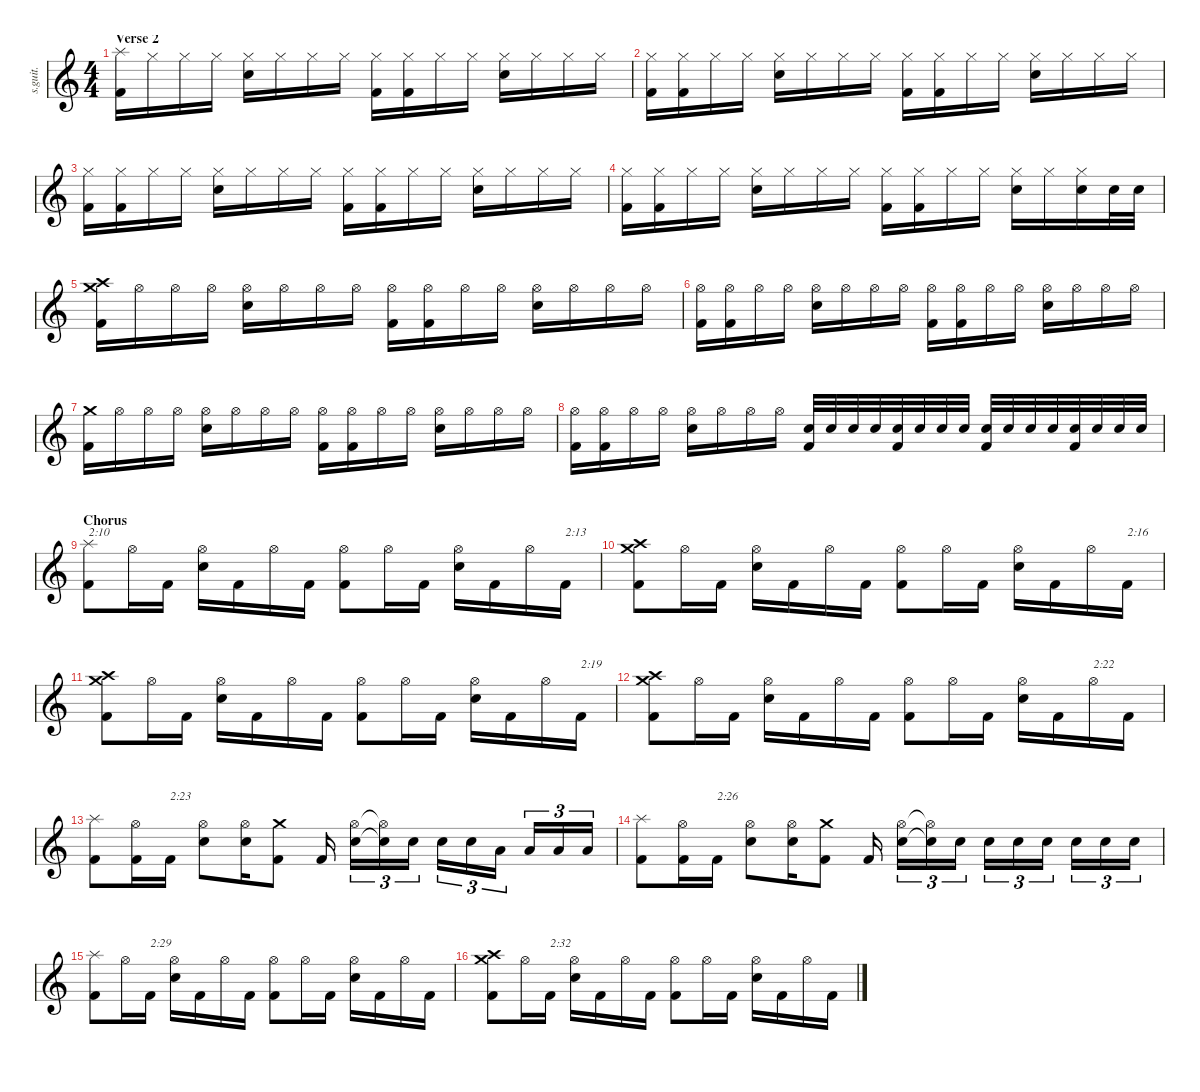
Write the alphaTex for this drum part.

\defaultSystemsLayout 4
\hideDynamics
\bracketExtendMode nobrackets
\track ("Dave Grohl | Drums" "s.guit.") {instrument percussion}
\staff {score}
\articulation defaults
\ts (4 4)
\section ("" "Verse 2")
\tempo (79 hide)
\clef g2
\ks c
("Kick (hit) 2" "Splash (hit)").16{lyrics (0 "") lyrics (1 "") lyrics (2 "") lyrics (3 "") lyrics (4 "") dy f} "Hi-Hat (closed)".16{lyrics (0 "") lyrics (1 "") lyrics (2 "") lyrics (3 "") lyrics (4 "")} "Hi-Hat (closed)".16{lyrics (0 "") lyrics (1 "") lyrics (2 "") lyrics (3 "") lyrics (4 "")} "Hi-Hat (closed)".16{lyrics (0 "") lyrics (1 "") lyrics (2 "") lyrics (3 "") lyrics (4 "")} ("Snare (hit) 2" "Hi-Hat (closed)").16{lyrics (0 "") lyrics (1 "") lyrics (2 "") lyrics (3 "") lyrics (4 "")} "Hi-Hat (closed)".16{lyrics (0 "") lyrics (1 "") lyrics (2 "") lyrics (3 "") lyrics (4 "")} "Hi-Hat (closed)".16{lyrics (0 "") lyrics (1 "") lyrics (2 "") lyrics (3 "") lyrics (4 "")} "Hi-Hat (closed)".16{lyrics (0 "") lyrics (1 "") lyrics (2 "") lyrics (3 "") lyrics (4 "")} ("Kick (hit) 2" "Hi-Hat (closed)").16{lyrics (0 "") lyrics (1 "") lyrics (2 "") lyrics (3 "") lyrics (4 "")} ("Kick (hit) 2" "Hi-Hat (closed)").16{lyrics (0 "") lyrics (1 "") lyrics (2 "") lyrics (3 "") lyrics (4 "")} "Hi-Hat (closed)".16{lyrics (0 "") lyrics (1 "") lyrics (2 "") lyrics (3 "") lyrics (4 "")} "Hi-Hat (closed)".16{lyrics (0 "") lyrics (1 "") lyrics (2 "") lyrics (3 "") lyrics (4 "")} ("Snare (hit) 2" "Hi-Hat (closed)").16{lyrics (0 "") lyrics (1 "") lyrics (2 "") lyrics (3 "") lyrics (4 "")} "Hi-Hat (closed)".16{lyrics (0 "") lyrics (1 "") lyrics (2 "") lyrics (3 "") lyrics (4 "")} "Hi-Hat (closed)".16{lyrics (0 "") lyrics (1 "") lyrics (2 "") lyrics (3 "") lyrics (4 "")} "Hi-Hat (closed)".16{lyrics (0 "") lyrics (1 "") lyrics (2 "") lyrics (3 "") lyrics (4 "")} |
("Kick (hit) 2" "Hi-Hat (closed)").16{lyrics (0 "") lyrics (1 "") lyrics (2 "") lyrics (3 "") lyrics (4 "")} ("Kick (hit) 2" "Hi-Hat (closed)").16{lyrics (0 "") lyrics (1 "") lyrics (2 "") lyrics (3 "") lyrics (4 "")} "Hi-Hat (closed)".16{lyrics (0 "") lyrics (1 "") lyrics (2 "") lyrics (3 "") lyrics (4 "")} "Hi-Hat (closed)".16{lyrics (0 "") lyrics (1 "") lyrics (2 "") lyrics (3 "") lyrics (4 "")} ("Snare (hit) 2" "Hi-Hat (closed)").16{lyrics (0 "") lyrics (1 "") lyrics (2 "") lyrics (3 "") lyrics (4 "")} "Hi-Hat (closed)".16{lyrics (0 "") lyrics (1 "") lyrics (2 "") lyrics (3 "") lyrics (4 "")} "Hi-Hat (closed)".16{lyrics (0 "") lyrics (1 "") lyrics (2 "") lyrics (3 "") lyrics (4 "")} "Hi-Hat (closed)".16{lyrics (0 "") lyrics (1 "") lyrics (2 "") lyrics (3 "") lyrics (4 "")} ("Kick (hit) 2" "Hi-Hat (closed)").16{lyrics (0 "") lyrics (1 "") lyrics (2 "") lyrics (3 "") lyrics (4 "")} ("Kick (hit) 2" "Hi-Hat (closed)").16{lyrics (0 "") lyrics (1 "") lyrics (2 "") lyrics (3 "") lyrics (4 "")} "Hi-Hat (closed)".16{lyrics (0 "") lyrics (1 "") lyrics (2 "") lyrics (3 "") lyrics (4 "")} "Hi-Hat (closed)".16{lyrics (0 "") lyrics (1 "") lyrics (2 "") lyrics (3 "") lyrics (4 "")} ("Snare (hit) 2" "Hi-Hat (closed)").16{lyrics (0 "") lyrics (1 "") lyrics (2 "") lyrics (3 "") lyrics (4 "")} "Hi-Hat (closed)".16{lyrics (0 "") lyrics (1 "") lyrics (2 "") lyrics (3 "") lyrics (4 "")} "Hi-Hat (closed)".16{lyrics (0 "") lyrics (1 "") lyrics (2 "") lyrics (3 "") lyrics (4 "")} "Hi-Hat (closed)".16{lyrics (0 "") lyrics (1 "") lyrics (2 "") lyrics (3 "") lyrics (4 "")} |
("Kick (hit) 2" "Hi-Hat (closed)").16{lyrics (0 "") lyrics (1 "") lyrics (2 "") lyrics (3 "") lyrics (4 "")} ("Kick (hit) 2" "Hi-Hat (closed)").16{lyrics (0 "") lyrics (1 "") lyrics (2 "") lyrics (3 "") lyrics (4 "")} "Hi-Hat (closed)".16{lyrics (0 "") lyrics (1 "") lyrics (2 "") lyrics (3 "") lyrics (4 "")} "Hi-Hat (closed)".16{lyrics (0 "") lyrics (1 "") lyrics (2 "") lyrics (3 "") lyrics (4 "")} ("Snare (hit) 2" "Hi-Hat (closed)").16{lyrics (0 "") lyrics (1 "") lyrics (2 "") lyrics (3 "") lyrics (4 "")} "Hi-Hat (closed)".16{lyrics (0 "") lyrics (1 "") lyrics (2 "") lyrics (3 "") lyrics (4 "")} "Hi-Hat (closed)".16{lyrics (0 "") lyrics (1 "") lyrics (2 "") lyrics (3 "") lyrics (4 "")} "Hi-Hat (closed)".16{lyrics (0 "") lyrics (1 "") lyrics (2 "") lyrics (3 "") lyrics (4 "")} ("Kick (hit) 2" "Hi-Hat (closed)").16{lyrics (0 "") lyrics (1 "") lyrics (2 "") lyrics (3 "") lyrics (4 "")} ("Kick (hit) 2" "Hi-Hat (closed)").16{lyrics (0 "") lyrics (1 "") lyrics (2 "") lyrics (3 "") lyrics (4 "")} "Hi-Hat (closed)".16{lyrics (0 "") lyrics (1 "") lyrics (2 "") lyrics (3 "") lyrics (4 "")} "Hi-Hat (closed)".16{lyrics (0 "") lyrics (1 "") lyrics (2 "") lyrics (3 "") lyrics (4 "")} ("Snare (hit) 2" "Hi-Hat (closed)").16{lyrics (0 "") lyrics (1 "") lyrics (2 "") lyrics (3 "") lyrics (4 "")} "Hi-Hat (closed)".16{lyrics (0 "") lyrics (1 "") lyrics (2 "") lyrics (3 "") lyrics (4 "")} "Hi-Hat (closed)".16{lyrics (0 "") lyrics (1 "") lyrics (2 "") lyrics (3 "") lyrics (4 "")} "Hi-Hat (closed)".16{lyrics (0 "") lyrics (1 "") lyrics (2 "") lyrics (3 "") lyrics (4 "")} |
("Kick (hit) 2" "Hi-Hat (closed)").16{lyrics (0 "") lyrics (1 "") lyrics (2 "") lyrics (3 "") lyrics (4 "")} ("Kick (hit) 2" "Hi-Hat (closed)").16{lyrics (0 "") lyrics (1 "") lyrics (2 "") lyrics (3 "") lyrics (4 "")} "Hi-Hat (closed)".16{lyrics (0 "") lyrics (1 "") lyrics (2 "") lyrics (3 "") lyrics (4 "")} "Hi-Hat (closed)".16{lyrics (0 "") lyrics (1 "") lyrics (2 "") lyrics (3 "") lyrics (4 "")} ("Snare (hit) 2" "Hi-Hat (closed)").16{lyrics (0 "") lyrics (1 "") lyrics (2 "") lyrics (3 "") lyrics (4 "")} "Hi-Hat (closed)".16{lyrics (0 "") lyrics (1 "") lyrics (2 "") lyrics (3 "") lyrics (4 "")} "Hi-Hat (closed)".16{lyrics (0 "") lyrics (1 "") lyrics (2 "") lyrics (3 "") lyrics (4 "")} "Hi-Hat (closed)".16{lyrics (0 "") lyrics (1 "") lyrics (2 "") lyrics (3 "") lyrics (4 "")} ("Kick (hit) 2" "Hi-Hat (closed)").16{lyrics (0 "") lyrics (1 "") lyrics (2 "") lyrics (3 "") lyrics (4 "")} ("Kick (hit) 2" "Hi-Hat (closed)").16{lyrics (0 "") lyrics (1 "") lyrics (2 "") lyrics (3 "") lyrics (4 "")} "Hi-Hat (closed)".16{lyrics (0 "") lyrics (1 "") lyrics (2 "") lyrics (3 "") lyrics (4 "")} "Hi-Hat (closed)".16{lyrics (0 "") lyrics (1 "") lyrics (2 "") lyrics (3 "") lyrics (4 "")} ("Snare (hit) 2" "Hi-Hat (closed)").16{lyrics (0 "") lyrics (1 "") lyrics (2 "") lyrics (3 "") lyrics (4 "")} "Hi-Hat (closed)".16{lyrics (0 "") lyrics (1 "") lyrics (2 "") lyrics (3 "") lyrics (4 "")} ("Hi-Hat (closed)" "Snare (hit) 2").16{lyrics (0 "") lyrics (1 "") lyrics (2 "") lyrics (3 "") lyrics (4 "")} "Snare (hit) 2".32{lyrics (0 "") lyrics (1 "") lyrics (2 "") lyrics (3 "") lyrics (4 "")} "Snare (hit) 2".32{lyrics (0 "") lyrics (1 "") lyrics (2 "") lyrics (3 "") lyrics (4 "")} |
("Crash medium (hit)" "Crash high (hit)" "Kick (hit) 2").16{lyrics (0 "") lyrics (1 "") lyrics (2 "") lyrics (3 "") lyrics (4 "")} "Hi-Hat (open)".16{lyrics (0 "") lyrics (1 "") lyrics (2 "") lyrics (3 "") lyrics (4 "")} "Hi-Hat (open)".16{lyrics (0 "") lyrics (1 "") lyrics (2 "") lyrics (3 "") lyrics (4 "")} "Hi-Hat (open)".16{lyrics (0 "") lyrics (1 "") lyrics (2 "") lyrics (3 "") lyrics (4 "")} ("Hi-Hat (open)" "Snare (hit) 2").16{lyrics (0 "") lyrics (1 "") lyrics (2 "") lyrics (3 "") lyrics (4 "")} "Hi-Hat (open)".16{lyrics (0 "") lyrics (1 "") lyrics (2 "") lyrics (3 "") lyrics (4 "")} "Hi-Hat (open)".16{lyrics (0 "") lyrics (1 "") lyrics (2 "") lyrics (3 "") lyrics (4 "")} "Hi-Hat (open)".16{lyrics (0 "") lyrics (1 "") lyrics (2 "") lyrics (3 "") lyrics (4 "")} ("Hi-Hat (open)" "Kick (hit) 2").16{lyrics (0 "") lyrics (1 "") lyrics (2 "") lyrics (3 "") lyrics (4 "")} ("Kick (hit) 2" "Hi-Hat (open)").16{lyrics (0 "") lyrics (1 "") lyrics (2 "") lyrics (3 "") lyrics (4 "")} "Hi-Hat (open)".16{lyrics (0 "") lyrics (1 "") lyrics (2 "") lyrics (3 "") lyrics (4 "")} "Hi-Hat (open)".16{lyrics (0 "") lyrics (1 "") lyrics (2 "") lyrics (3 "") lyrics (4 "")} ("Hi-Hat (open)" "Snare (hit) 2").16{lyrics (0 "") lyrics (1 "") lyrics (2 "") lyrics (3 "") lyrics (4 "")} "Hi-Hat (open)".16{lyrics (0 "") lyrics (1 "") lyrics (2 "") lyrics (3 "") lyrics (4 "")} "Hi-Hat (open)".16{lyrics (0 "") lyrics (1 "") lyrics (2 "") lyrics (3 "") lyrics (4 "")} "Hi-Hat (open)".16{lyrics (0 "") lyrics (1 "") lyrics (2 "") lyrics (3 "") lyrics (4 "")} |
("Kick (hit) 2" "Hi-Hat (open)").16{lyrics (0 "") lyrics (1 "") lyrics (2 "") lyrics (3 "") lyrics (4 "")} ("Hi-Hat (open)" "Kick (hit) 2").16{lyrics (0 "") lyrics (1 "") lyrics (2 "") lyrics (3 "") lyrics (4 "")} "Hi-Hat (open)".16{lyrics (0 "") lyrics (1 "") lyrics (2 "") lyrics (3 "") lyrics (4 "")} "Hi-Hat (open)".16{lyrics (0 "") lyrics (1 "") lyrics (2 "") lyrics (3 "") lyrics (4 "")} ("Hi-Hat (open)" "Snare (hit) 2").16{lyrics (0 "") lyrics (1 "") lyrics (2 "") lyrics (3 "") lyrics (4 "")} "Hi-Hat (open)".16{lyrics (0 "") lyrics (1 "") lyrics (2 "") lyrics (3 "") lyrics (4 "")} "Hi-Hat (open)".16{lyrics (0 "") lyrics (1 "") lyrics (2 "") lyrics (3 "") lyrics (4 "")} "Hi-Hat (open)".16{lyrics (0 "") lyrics (1 "") lyrics (2 "") lyrics (3 "") lyrics (4 "")} ("Hi-Hat (open)" "Kick (hit) 2").16{lyrics (0 "") lyrics (1 "") lyrics (2 "") lyrics (3 "") lyrics (4 "")} ("Kick (hit) 2" "Hi-Hat (open)").16{lyrics (0 "") lyrics (1 "") lyrics (2 "") lyrics (3 "") lyrics (4 "")} "Hi-Hat (open)".16{lyrics (0 "") lyrics (1 "") lyrics (2 "") lyrics (3 "") lyrics (4 "")} "Hi-Hat (open)".16{lyrics (0 "") lyrics (1 "") lyrics (2 "") lyrics (3 "") lyrics (4 "")} ("Hi-Hat (open)" "Snare (hit) 2").16{lyrics (0 "") lyrics (1 "") lyrics (2 "") lyrics (3 "") lyrics (4 "")} "Hi-Hat (open)".16{lyrics (0 "") lyrics (1 "") lyrics (2 "") lyrics (3 "") lyrics (4 "")} "Hi-Hat (open)".16{lyrics (0 "") lyrics (1 "") lyrics (2 "") lyrics (3 "") lyrics (4 "")} "Hi-Hat (open)".16{lyrics (0 "") lyrics (1 "") lyrics (2 "") lyrics (3 "") lyrics (4 "")} |
("Crash medium (hit)" "Kick (hit) 2").16{lyrics (0 "") lyrics (1 "") lyrics (2 "") lyrics (3 "") lyrics (4 "")} "Hi-Hat (open)".16{lyrics (0 "") lyrics (1 "") lyrics (2 "") lyrics (3 "") lyrics (4 "")} "Hi-Hat (open)".16{lyrics (0 "") lyrics (1 "") lyrics (2 "") lyrics (3 "") lyrics (4 "")} "Hi-Hat (open)".16{lyrics (0 "") lyrics (1 "") lyrics (2 "") lyrics (3 "") lyrics (4 "")} ("Hi-Hat (open)" "Snare (hit) 2").16{lyrics (0 "") lyrics (1 "") lyrics (2 "") lyrics (3 "") lyrics (4 "")} "Hi-Hat (open)".16{lyrics (0 "") lyrics (1 "") lyrics (2 "") lyrics (3 "") lyrics (4 "")} "Hi-Hat (open)".16{lyrics (0 "") lyrics (1 "") lyrics (2 "") lyrics (3 "") lyrics (4 "")} "Hi-Hat (open)".16{lyrics (0 "") lyrics (1 "") lyrics (2 "") lyrics (3 "") lyrics (4 "")} ("Hi-Hat (open)" "Kick (hit) 2").16{lyrics (0 "") lyrics (1 "") lyrics (2 "") lyrics (3 "") lyrics (4 "")} ("Kick (hit) 2" "Hi-Hat (open)").16{lyrics (0 "") lyrics (1 "") lyrics (2 "") lyrics (3 "") lyrics (4 "")} "Hi-Hat (open)".16{lyrics (0 "") lyrics (1 "") lyrics (2 "") lyrics (3 "") lyrics (4 "")} "Hi-Hat (open)".16{lyrics (0 "") lyrics (1 "") lyrics (2 "") lyrics (3 "") lyrics (4 "")} ("Hi-Hat (open)" "Snare (hit) 2").16{lyrics (0 "") lyrics (1 "") lyrics (2 "") lyrics (3 "") lyrics (4 "")} "Hi-Hat (open)".16{lyrics (0 "") lyrics (1 "") lyrics (2 "") lyrics (3 "") lyrics (4 "")} "Hi-Hat (open)".16{lyrics (0 "") lyrics (1 "") lyrics (2 "") lyrics (3 "") lyrics (4 "")} "Hi-Hat (open)".16{lyrics (0 "") lyrics (1 "") lyrics (2 "") lyrics (3 "") lyrics (4 "")} |
("Kick (hit) 2" "Hi-Hat (open)").16{lyrics (0 "") lyrics (1 "") lyrics (2 "") lyrics (3 "") lyrics (4 "")} ("Hi-Hat (open)" "Kick (hit) 2").16{lyrics (0 "") lyrics (1 "") lyrics (2 "") lyrics (3 "") lyrics (4 "")} "Hi-Hat (open)".16{lyrics (0 "") lyrics (1 "") lyrics (2 "") lyrics (3 "") lyrics (4 "")} "Hi-Hat (open)".16{lyrics (0 "") lyrics (1 "") lyrics (2 "") lyrics (3 "") lyrics (4 "")} ("Hi-Hat (open)" "Snare (hit) 2").16{lyrics (0 "") lyrics (1 "") lyrics (2 "") lyrics (3 "") lyrics (4 "")} "Hi-Hat (open)".16{lyrics (0 "") lyrics (1 "") lyrics (2 "") lyrics (3 "") lyrics (4 "")} "Hi-Hat (open)".16{lyrics (0 "") lyrics (1 "") lyrics (2 "") lyrics (3 "") lyrics (4 "")} "Hi-Hat (open)".16{lyrics (0 "") lyrics (1 "") lyrics (2 "") lyrics (3 "") lyrics (4 "")} ("Snare (hit) 2" "Kick (hit) 2").32{lyrics (0 "") lyrics (1 "") lyrics (2 "") lyrics (3 "") lyrics (4 "")} "Snare (hit) 2".32{lyrics (0 "") lyrics (1 "") lyrics (2 "") lyrics (3 "") lyrics (4 "")} "Snare (hit) 2".32{lyrics (0 "") lyrics (1 "") lyrics (2 "") lyrics (3 "") lyrics (4 "")} "Snare (hit) 2".32{lyrics (0 "") lyrics (1 "") lyrics (2 "") lyrics (3 "") lyrics (4 "")} ("Snare (hit) 2" "Kick (hit) 2").32{lyrics (0 "") lyrics (1 "") lyrics (2 "") lyrics (3 "") lyrics (4 "")} "Snare (hit) 2".32{lyrics (0 "") lyrics (1 "") lyrics (2 "") lyrics (3 "") lyrics (4 "")} "Snare (hit) 2".32{lyrics (0 "") lyrics (1 "") lyrics (2 "") lyrics (3 "") lyrics (4 "")} "Snare (hit) 2".32{lyrics (0 "") lyrics (1 "") lyrics (2 "") lyrics (3 "") lyrics (4 "")} ("Snare (hit) 2" "Kick (hit) 2").32{lyrics (0 "") lyrics (1 "") lyrics (2 "") lyrics (3 "") lyrics (4 "")} "Snare (hit) 2".32{lyrics (0 "") lyrics (1 "") lyrics (2 "") lyrics (3 "") lyrics (4 "")} "Snare (hit) 2".32{lyrics (0 "") lyrics (1 "") lyrics (2 "") lyrics (3 "") lyrics (4 "")} "Snare (hit) 2".32{lyrics (0 "") lyrics (1 "") lyrics (2 "") lyrics (3 "") lyrics (4 "")} ("Snare (hit) 2" "Kick (hit) 2").32{lyrics (0 "") lyrics (1 "") lyrics (2 "") lyrics (3 "") lyrics (4 "")} "Snare (hit) 2".32{lyrics (0 "") lyrics (1 "") lyrics (2 "") lyrics (3 "") lyrics (4 "")} "Snare (hit) 2".32{lyrics (0 "") lyrics (1 "") lyrics (2 "") lyrics (3 "") lyrics (4 "")} "Snare (hit) 2".32{lyrics (0 "") lyrics (1 "") lyrics (2 "") lyrics (3 "") lyrics (4 "")} |
\section ("" "Chorus")
("Splash (hit)" "Kick (hit) 2").8{txt "2:10" lyrics (0 "") lyrics (1 "") lyrics (2 "") lyrics (3 "") lyrics (4 "")} "Hi-Hat (open)".16{lyrics (0 "") lyrics (1 "") lyrics (2 "") lyrics (3 "") lyrics (4 "")} "Kick (hit) 2".16{lyrics (0 "") lyrics (1 "") lyrics (2 "") lyrics (3 "") lyrics (4 "") dy fff} ("Hi-Hat (open)" "Snare (hit) 2").16{lyrics (0 "") lyrics (1 "") lyrics (2 "") lyrics (3 "") lyrics (4 "") dy f} "Kick (hit) 2".16{lyrics (0 "") lyrics (1 "") lyrics (2 "") lyrics (3 "") lyrics (4 "") dy fff} "Hi-Hat (open)".16{lyrics (0 "") lyrics (1 "") lyrics (2 "") lyrics (3 "") lyrics (4 "") dy f} "Kick (hit) 2".16{lyrics (0 "") lyrics (1 "") lyrics (2 "") lyrics (3 "") lyrics (4 "") dy fff} ("Hi-Hat (open)" "Kick (hit) 2").8{lyrics (0 "") lyrics (1 "") lyrics (2 "") lyrics (3 "") lyrics (4 "") dy f} "Hi-Hat (open)".16{lyrics (0 "") lyrics (1 "") lyrics (2 "") lyrics (3 "") lyrics (4 "")} "Kick (hit) 2".16{lyrics (0 "") lyrics (1 "") lyrics (2 "") lyrics (3 "") lyrics (4 "") dy fff} ("Hi-Hat (open)" "Snare (hit) 2").16{lyrics (0 "") lyrics (1 "") lyrics (2 "") lyrics (3 "") lyrics (4 "") dy f} "Kick (hit) 2".16{lyrics (0 "") lyrics (1 "") lyrics (2 "") lyrics (3 "") lyrics (4 "") dy fff} "Hi-Hat (open)".16{lyrics (0 "") lyrics (1 "") lyrics (2 "") lyrics (3 "") lyrics (4 "") dy f} "Kick (hit) 2".16{txt "2:13" lyrics (0 "") lyrics (1 "") lyrics (2 "") lyrics (3 "") lyrics (4 "") dy fff} |
("Crash medium (hit)" "Crash high (hit)" "Kick (hit) 2").8{lyrics (0 "") lyrics (1 "") lyrics (2 "") lyrics (3 "") lyrics (4 "") dy f} "Hi-Hat (open)".16{lyrics (0 "") lyrics (1 "") lyrics (2 "") lyrics (3 "") lyrics (4 "")} "Kick (hit) 2".16{lyrics (0 "") lyrics (1 "") lyrics (2 "") lyrics (3 "") lyrics (4 "") dy fff} ("Hi-Hat (open)" "Snare (hit) 2").16{lyrics (0 "") lyrics (1 "") lyrics (2 "") lyrics (3 "") lyrics (4 "") dy f} "Kick (hit) 2".16{lyrics (0 "") lyrics (1 "") lyrics (2 "") lyrics (3 "") lyrics (4 "") dy fff} "Hi-Hat (open)".16{lyrics (0 "") lyrics (1 "") lyrics (2 "") lyrics (3 "") lyrics (4 "") dy f} "Kick (hit) 2".16{lyrics (0 "") lyrics (1 "") lyrics (2 "") lyrics (3 "") lyrics (4 "") dy fff} ("Hi-Hat (open)" "Kick (hit) 2").8{lyrics (0 "") lyrics (1 "") lyrics (2 "") lyrics (3 "") lyrics (4 "") dy f} "Hi-Hat (open)".16{lyrics (0 "") lyrics (1 "") lyrics (2 "") lyrics (3 "") lyrics (4 "")} "Kick (hit) 2".16{lyrics (0 "") lyrics (1 "") lyrics (2 "") lyrics (3 "") lyrics (4 "") dy fff} ("Hi-Hat (open)" "Snare (hit) 2").16{lyrics (0 "") lyrics (1 "") lyrics (2 "") lyrics (3 "") lyrics (4 "") dy f} "Kick (hit) 2".16{lyrics (0 "") lyrics (1 "") lyrics (2 "") lyrics (3 "") lyrics (4 "") dy fff} "Hi-Hat (open)".16{lyrics (0 "") lyrics (1 "") lyrics (2 "") lyrics (3 "") lyrics (4 "") dy f} "Kick (hit) 2".16{txt "2:16" lyrics (0 "") lyrics (1 "") lyrics (2 "") lyrics (3 "") lyrics (4 "") dy fff} |
("Crash medium (hit)" "Crash high (hit)" "Kick (hit) 2").8{lyrics (0 "") lyrics (1 "") lyrics (2 "") lyrics (3 "") lyrics (4 "") dy f} "Hi-Hat (open)".16{lyrics (0 "") lyrics (1 "") lyrics (2 "") lyrics (3 "") lyrics (4 "")} "Kick (hit) 2".16{lyrics (0 "") lyrics (1 "") lyrics (2 "") lyrics (3 "") lyrics (4 "")} ("Hi-Hat (open)" "Snare (hit) 2").16{lyrics (0 "") lyrics (1 "") lyrics (2 "") lyrics (3 "") lyrics (4 "")} "Kick (hit) 2".16{lyrics (0 "") lyrics (1 "") lyrics (2 "") lyrics (3 "") lyrics (4 "")} "Hi-Hat (open)".16{lyrics (0 "") lyrics (1 "") lyrics (2 "") lyrics (3 "") lyrics (4 "")} "Kick (hit) 2".16{lyrics (0 "") lyrics (1 "") lyrics (2 "") lyrics (3 "") lyrics (4 "")} ("Hi-Hat (open)" "Kick (hit) 2").8{lyrics (0 "") lyrics (1 "") lyrics (2 "") lyrics (3 "") lyrics (4 "")} "Hi-Hat (open)".16{lyrics (0 "") lyrics (1 "") lyrics (2 "") lyrics (3 "") lyrics (4 "")} "Kick (hit) 2".16{lyrics (0 "") lyrics (1 "") lyrics (2 "") lyrics (3 "") lyrics (4 "")} ("Hi-Hat (open)" "Snare (hit) 2").16{lyrics (0 "") lyrics (1 "") lyrics (2 "") lyrics (3 "") lyrics (4 "")} "Kick (hit) 2".16{lyrics (0 "") lyrics (1 "") lyrics (2 "") lyrics (3 "") lyrics (4 "")} "Hi-Hat (open)".16{lyrics (0 "") lyrics (1 "") lyrics (2 "") lyrics (3 "") lyrics (4 "")} "Kick (hit) 2".16{txt "2:19" lyrics (0 "") lyrics (1 "") lyrics (2 "") lyrics (3 "") lyrics (4 "")} |
("Crash medium (hit)" "Crash high (hit)" "Kick (hit) 2").8{lyrics (0 "") lyrics (1 "") lyrics (2 "") lyrics (3 "") lyrics (4 "")} "Hi-Hat (open)".16{lyrics (0 "") lyrics (1 "") lyrics (2 "") lyrics (3 "") lyrics (4 "")} "Kick (hit) 2".16{lyrics (0 "") lyrics (1 "") lyrics (2 "") lyrics (3 "") lyrics (4 "")} ("Hi-Hat (open)" "Snare (hit) 2").16{lyrics (0 "") lyrics (1 "") lyrics (2 "") lyrics (3 "") lyrics (4 "")} "Kick (hit) 2".16{lyrics (0 "") lyrics (1 "") lyrics (2 "") lyrics (3 "") lyrics (4 "")} "Hi-Hat (open)".16{lyrics (0 "") lyrics (1 "") lyrics (2 "") lyrics (3 "") lyrics (4 "")} "Kick (hit) 2".16{lyrics (0 "") lyrics (1 "") lyrics (2 "") lyrics (3 "") lyrics (4 "")} ("Hi-Hat (open)" "Kick (hit) 2").8{lyrics (0 "") lyrics (1 "") lyrics (2 "") lyrics (3 "") lyrics (4 "")} "Hi-Hat (open)".16{lyrics (0 "") lyrics (1 "") lyrics (2 "") lyrics (3 "") lyrics (4 "")} "Kick (hit) 2".16{lyrics (0 "") lyrics (1 "") lyrics (2 "") lyrics (3 "") lyrics (4 "")} ("Hi-Hat (open)" "Snare (hit) 2").16{lyrics (0 "") lyrics (1 "") lyrics (2 "") lyrics (3 "") lyrics (4 "")} "Kick (hit) 2".16{lyrics (0 "") lyrics (1 "") lyrics (2 "") lyrics (3 "") lyrics (4 "")} "Hi-Hat (open)".16{txt "2:22" lyrics (0 "") lyrics (1 "") lyrics (2 "") lyrics (3 "") lyrics (4 "")} "Kick (hit) 2".16{lyrics (0 "") lyrics (1 "") lyrics (2 "") lyrics (3 "") lyrics (4 "")} |
("Splash (hit)" "Kick (hit) 2").8{lyrics (0 "") lyrics (1 "") lyrics (2 "") lyrics (3 "") lyrics (4 "")} ("Hi-Hat (open)" "Kick (hit) 2").16{lyrics (0 "") lyrics (1 "") lyrics (2 "") lyrics (3 "") lyrics (4 "")} "Kick (hit) 2".16{txt "2:23" lyrics (0 "") lyrics (1 "") lyrics (2 "") lyrics (3 "") lyrics (4 "") dy fff} ("Hi-Hat (open)" "Snare (hit) 2").8{lyrics (0 "") lyrics (1 "") lyrics (2 "") lyrics (3 "") lyrics (4 "") dy f} ("Hi-Hat (open)" "Snare (hit) 2").16{lyrics (0 "") lyrics (1 "") lyrics (2 "") lyrics (3 "") lyrics (4 "")} ("Crash medium (hit)" "Kick (hit) 2").8{lyrics (0 "") lyrics (1 "") lyrics (2 "") lyrics (3 "") lyrics (4 "")} "Kick (hit) 2".16{lyrics (0 "") lyrics (1 "") lyrics (2 "") lyrics (3 "") lyrics (4 "") dy fff} ("Hi-Hat (open)" "Snare (hit) 2").16{tu (3 2) lyrics (0 "") lyrics (1 "") lyrics (2 "") lyrics (3 "") lyrics (4 "") dy f} ("Hi-Hat (open)"{t} "Snare (hit) 2"{t}).16{tu (3 2) lyrics (0 "") lyrics (1 "") lyrics (2 "") lyrics (3 "") lyrics (4 "")} "Snare (hit) 2".16{tu (3 2) lyrics (0 "") lyrics (1 "") lyrics (2 "") lyrics (3 "") lyrics (4 "")} "Snare (hit) 2".16{tu (3 2) lyrics (0 "") lyrics (1 "") lyrics (2 "") lyrics (3 "") lyrics (4 "")} "Snare (hit) 2".16{tu (3 2) lyrics (0 "") lyrics (1 "") lyrics (2 "") lyrics (3 "") lyrics (4 "")} "Low Tom (hit)".16{tu (3 2) lyrics (0 "") lyrics (1 "") lyrics (2 "") lyrics (3 "") lyrics (4 "")} "Low Tom (hit)".16{tu (3 2) lyrics (0 "") lyrics (1 "") lyrics (2 "") lyrics (3 "") lyrics (4 "")} "Low Floor Tom (hit)".16{tu (3 2) lyrics (0 "") lyrics (1 "") lyrics (2 "") lyrics (3 "") lyrics (4 "")} "Low Floor Tom (hit)".16{tu (3 2) lyrics (0 "") lyrics (1 "") lyrics (2 "") lyrics (3 "") lyrics (4 "")} |
("Splash (hit)" "Kick (hit) 2").8{lyrics (0 "") lyrics (1 "") lyrics (2 "") lyrics (3 "") lyrics (4 "")} ("Hi-Hat (open)" "Kick (hit) 2").16{lyrics (0 "") lyrics (1 "") lyrics (2 "") lyrics (3 "") lyrics (4 "")} "Kick (hit) 2".16{txt "2:26" lyrics (0 "") lyrics (1 "") lyrics (2 "") lyrics (3 "") lyrics (4 "")} ("Hi-Hat (open)" "Snare (hit) 2").8{lyrics (0 "") lyrics (1 "") lyrics (2 "") lyrics (3 "") lyrics (4 "")} ("Hi-Hat (open)" "Snare (hit) 2").16{lyrics (0 "") lyrics (1 "") lyrics (2 "") lyrics (3 "") lyrics (4 "")} ("Crash medium (hit)" "Kick (hit) 2").8{lyrics (0 "") lyrics (1 "") lyrics (2 "") lyrics (3 "") lyrics (4 "")} "Kick (hit) 2".16{lyrics (0 "") lyrics (1 "") lyrics (2 "") lyrics (3 "") lyrics (4 "")} ("Hi-Hat (open)" "Snare (hit) 2").16{tu (3 2) lyrics (0 "") lyrics (1 "") lyrics (2 "") lyrics (3 "") lyrics (4 "")} ("Hi-Hat (open)"{t} "Snare (hit) 2"{t}).16{tu (3 2) lyrics (0 "") lyrics (1 "") lyrics (2 "") lyrics (3 "") lyrics (4 "")} "Snare (hit) 2".16{tu (3 2) lyrics (0 "") lyrics (1 "") lyrics (2 "") lyrics (3 "") lyrics (4 "")} "Snare (hit) 2".16{tu (3 2) lyrics (0 "") lyrics (1 "") lyrics (2 "") lyrics (3 "") lyrics (4 "")} "Snare (hit) 2".16{tu (3 2) lyrics (0 "") lyrics (1 "") lyrics (2 "") lyrics (3 "") lyrics (4 "")} "Snare (hit) 2".16{tu (3 2) lyrics (0 "") lyrics (1 "") lyrics (2 "") lyrics (3 "") lyrics (4 "")} "Snare (hit) 2".16{tu (3 2) lyrics (0 "") lyrics (1 "") lyrics (2 "") lyrics (3 "") lyrics (4 "")} "Snare (hit) 2".16{tu (3 2) lyrics (0 "") lyrics (1 "") lyrics (2 "") lyrics (3 "") lyrics (4 "")} "Snare (hit) 2".16{tu (3 2) lyrics (0 "") lyrics (1 "") lyrics (2 "") lyrics (3 "") lyrics (4 "")} |
("Splash (hit)" "Kick (hit) 2").8{lyrics (0 "") lyrics (1 "") lyrics (2 "") lyrics (3 "") lyrics (4 "")} "Hi-Hat (open)".16{lyrics (0 "") lyrics (1 "") lyrics (2 "") lyrics (3 "") lyrics (4 "")} "Kick (hit) 2".16{txt "2:29" lyrics (0 "") lyrics (1 "") lyrics (2 "") lyrics (3 "") lyrics (4 "") dy fff} ("Hi-Hat (open)" "Snare (hit) 2").16{lyrics (0 "") lyrics (1 "") lyrics (2 "") lyrics (3 "") lyrics (4 "") dy f} "Kick (hit) 2".16{lyrics (0 "") lyrics (1 "") lyrics (2 "") lyrics (3 "") lyrics (4 "") dy fff} "Hi-Hat (open)".16{lyrics (0 "") lyrics (1 "") lyrics (2 "") lyrics (3 "") lyrics (4 "") dy f} "Kick (hit) 2".16{lyrics (0 "") lyrics (1 "") lyrics (2 "") lyrics (3 "") lyrics (4 "") dy fff} ("Hi-Hat (open)" "Kick (hit) 2").8{lyrics (0 "") lyrics (1 "") lyrics (2 "") lyrics (3 "") lyrics (4 "") dy f} "Hi-Hat (open)".16{lyrics (0 "") lyrics (1 "") lyrics (2 "") lyrics (3 "") lyrics (4 "")} "Kick (hit) 2".16{lyrics (0 "") lyrics (1 "") lyrics (2 "") lyrics (3 "") lyrics (4 "") dy fff} ("Hi-Hat (open)" "Snare (hit) 2").16{lyrics (0 "") lyrics (1 "") lyrics (2 "") lyrics (3 "") lyrics (4 "") dy f} "Kick (hit) 2".16{lyrics (0 "") lyrics (1 "") lyrics (2 "") lyrics (3 "") lyrics (4 "") dy fff} "Hi-Hat (open)".16{lyrics (0 "") lyrics (1 "") lyrics (2 "") lyrics (3 "") lyrics (4 "") dy f} "Kick (hit) 2".16{lyrics (0 "") lyrics (1 "") lyrics (2 "") lyrics (3 "") lyrics (4 "") dy fff} |
("Crash medium (hit)" "Crash high (hit)" "Kick (hit) 2").8{lyrics (0 "") lyrics (1 "") lyrics (2 "") lyrics (3 "") lyrics (4 "") dy f} "Hi-Hat (open)".16{lyrics (0 "") lyrics (1 "") lyrics (2 "") lyrics (3 "") lyrics (4 "")} "Kick (hit) 2".16{txt "2:32" lyrics (0 "") lyrics (1 "") lyrics (2 "") lyrics (3 "") lyrics (4 "") dy fff} ("Hi-Hat (open)" "Snare (hit) 2").16{lyrics (0 "") lyrics (1 "") lyrics (2 "") lyrics (3 "") lyrics (4 "") dy f} "Kick (hit) 2".16{lyrics (0 "") lyrics (1 "") lyrics (2 "") lyrics (3 "") lyrics (4 "") dy fff} "Hi-Hat (open)".16{lyrics (0 "") lyrics (1 "") lyrics (2 "") lyrics (3 "") lyrics (4 "") dy f} "Kick (hit) 2".16{lyrics (0 "") lyrics (1 "") lyrics (2 "") lyrics (3 "") lyrics (4 "") dy fff} ("Hi-Hat (open)" "Kick (hit) 2").8{lyrics (0 "") lyrics (1 "") lyrics (2 "") lyrics (3 "") lyrics (4 "") dy f} "Hi-Hat (open)".16{lyrics (0 "") lyrics (1 "") lyrics (2 "") lyrics (3 "") lyrics (4 "")} "Kick (hit) 2".16{lyrics (0 "") lyrics (1 "") lyrics (2 "") lyrics (3 "") lyrics (4 "") dy fff} ("Hi-Hat (open)" "Snare (hit) 2").16{lyrics (0 "") lyrics (1 "") lyrics (2 "") lyrics (3 "") lyrics (4 "") dy f} "Kick (hit) 2".16{lyrics (0 "") lyrics (1 "") lyrics (2 "") lyrics (3 "") lyrics (4 "") dy fff} "Hi-Hat (open)".16{lyrics (0 "") lyrics (1 "") lyrics (2 "") lyrics (3 "") lyrics (4 "") dy f} "Kick (hit) 2".16{lyrics (0 "") lyrics (1 "") lyrics (2 "") lyrics (3 "") lyrics (4 "") dy fff}
